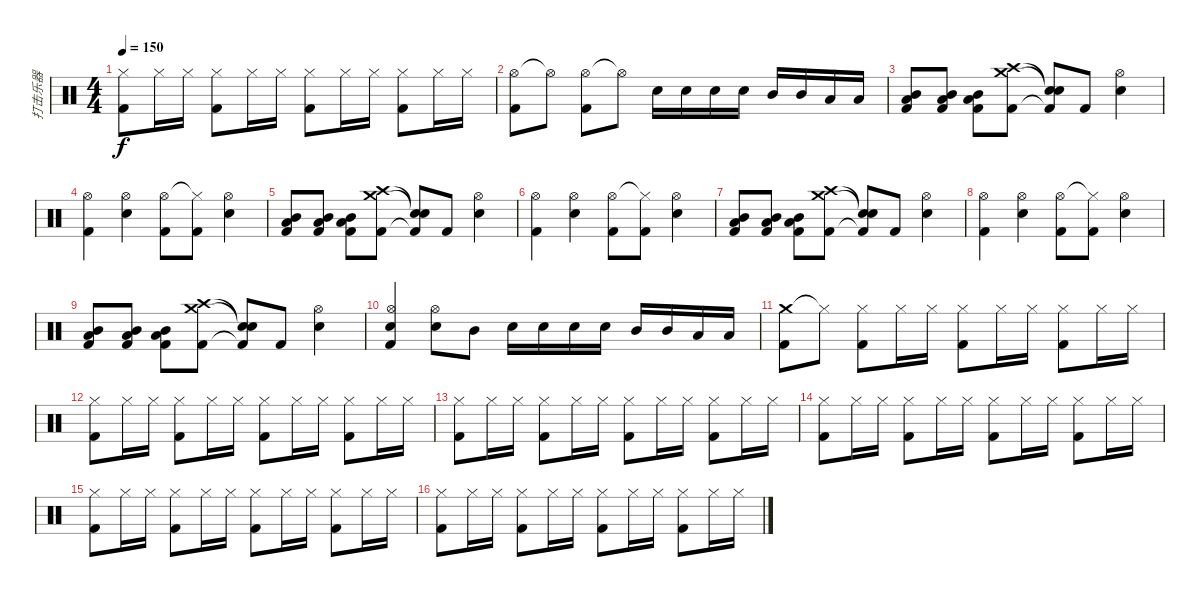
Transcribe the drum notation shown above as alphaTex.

\track ("打击乐器" "打击乐器") {instrument percussion}
\staff {score}
\articulation defaults
\ts (4 4)
\tempo 150
\clef neutral
\ks c
("Hi-Hat (closed)" "Kick (hit) 2").8{dy f} "Hi-Hat (closed)".16 "Hi-Hat (closed)".16 ("Hi-Hat (closed)" "Kick (hit) 2").8 "Hi-Hat (closed)".16 "Hi-Hat (closed)".16 ("Hi-Hat (closed)" "Kick (hit) 2").8 "Hi-Hat (closed)".16 "Hi-Hat (closed)".16 ("Hi-Hat (closed)" "Kick (hit) 2").8 "Hi-Hat (closed)".16 "Hi-Hat (closed)".16 |
("Hi-Hat (open)" "Kick (hit) 2").8 "Hi-Hat (open)"{t}.8 ("Hi-Hat (open)" "Kick (hit) 2").8 "Hi-Hat (open)"{t}.8 "Snare (hit) 2".16 "Snare (hit) 2".16 "Snare (hit) 2".16 "Snare (hit) 2".16 "Mid Tom (hit)".16 "Mid Tom (hit)".16 "Low Tom (hit)".16 "Low Tom (hit)".16 |
("Mid Tom (hit)" "Low Tom (hit)" "Kick (hit) 2").8 ("Mid Tom (hit)" "Low Tom (hit)" "Kick (hit) 2").8 ("Mid Tom (hit)" "Low Tom (hit)" "Kick (hit) 2").8 ("Crash high (hit)" "Crash medium (hit)" "Kick (hit) 2").8 ("Snare (hit)"{t} "Snare (hit)"{t} "Kick (hit) 2"{t}).8 "Kick (hit) 2".8 ("Hi-Hat (open)" "Snare (hit) 2").4 |
("Hi-Hat (open)" "Kick (hit) 2").4 ("Hi-Hat (open)" "Snare (hit) 2").4 ("Hi-Hat (open)" "Kick (hit) 2").8 ("Hi-Hat (closed)"{t} "Kick (hit) 2").8 ("Hi-Hat (open)" "Snare (hit) 2").4 |
("Mid Tom (hit)" "Low Tom (hit)" "Kick (hit) 2").8 ("Mid Tom (hit)" "Low Tom (hit)" "Kick (hit) 2").8 ("Mid Tom (hit)" "Low Tom (hit)" "Kick (hit) 2").8 ("Crash high (hit)" "Crash medium (hit)" "Kick (hit) 2").8 ("Snare (hit)"{t} "Snare (hit)"{t} "Kick (hit) 2"{t}).8 "Kick (hit) 2".8 ("Hi-Hat (open)" "Snare (hit) 2").4 |
("Hi-Hat (open)" "Kick (hit) 2").4 ("Hi-Hat (open)" "Snare (hit) 2").4 ("Hi-Hat (open)" "Kick (hit) 2").8 ("Hi-Hat (closed)"{t} "Kick (hit) 2").8 ("Hi-Hat (open)" "Snare (hit) 2").4 |
("Mid Tom (hit)" "Low Tom (hit)" "Kick (hit) 2").8 ("Mid Tom (hit)" "Low Tom (hit)" "Kick (hit) 2").8 ("Mid Tom (hit)" "Low Tom (hit)" "Kick (hit) 2").8 ("Crash high (hit)" "Crash medium (hit)" "Kick (hit) 2").8 ("Snare (hit)"{t} "Snare (hit)"{t} "Kick (hit) 2"{t}).8 "Kick (hit) 2".8 ("Hi-Hat (open)" "Snare (hit) 2").4 |
("Hi-Hat (open)" "Kick (hit) 2").4 ("Hi-Hat (open)" "Snare (hit) 2").4 ("Hi-Hat (open)" "Kick (hit) 2").8 ("Hi-Hat (closed)"{t} "Kick (hit) 2").8 ("Hi-Hat (open)" "Snare (hit) 2").4 |
("Mid Tom (hit)" "Low Tom (hit)" "Kick (hit) 2").8 ("Mid Tom (hit)" "Low Tom (hit)" "Kick (hit) 2").8 ("Mid Tom (hit)" "Low Tom (hit)" "Kick (hit) 2").8 ("Crash high (hit)" "Crash medium (hit)" "Kick (hit) 2").8 ("Snare (hit)"{t} "Snare (hit)"{t} "Kick (hit) 2"{t}).8 "Kick (hit) 2".8 ("Hi-Hat (open)" "Snare (hit) 2").4 |
("Hi-Hat (open)" "Snare (hit) 2" "Kick (hit) 2").4 ("Hi-Hat (open)" "Snare (hit) 2").8 "Mid Tom (hit)".8 "Snare (hit) 2".16 "Snare (hit) 2".16 "Snare (hit) 2".16 "Snare (hit) 2".16 "Mid Tom (hit)".16 "Mid Tom (hit)".16 "Low Tom (hit)".16 "Low Tom (hit)".16 |
("Crash medium (hit)" "Kick (hit) 2").8 "Hi-Hat (closed)"{t}.8 ("Hi-Hat (closed)" "Kick (hit) 2").8 "Hi-Hat (closed)".16 "Hi-Hat (closed)".16 ("Hi-Hat (closed)" "Kick (hit) 2").8 "Hi-Hat (closed)".16 "Hi-Hat (closed)".16 ("Hi-Hat (closed)" "Kick (hit) 2").8 "Hi-Hat (closed)".16 "Hi-Hat (closed)".16 |
("Hi-Hat (closed)" "Kick (hit) 2").8 "Hi-Hat (closed)".16 "Hi-Hat (closed)".16 ("Hi-Hat (closed)" "Kick (hit) 2").8 "Hi-Hat (closed)".16 "Hi-Hat (closed)".16 ("Hi-Hat (closed)" "Kick (hit) 2").8 "Hi-Hat (closed)".16 "Hi-Hat (closed)".16 ("Hi-Hat (closed)" "Kick (hit) 2").8 "Hi-Hat (closed)".16 "Hi-Hat (closed)".16 |
("Hi-Hat (closed)" "Kick (hit) 2").8 "Hi-Hat (closed)".16 "Hi-Hat (closed)".16 ("Hi-Hat (closed)" "Kick (hit) 2").8 "Hi-Hat (closed)".16 "Hi-Hat (closed)".16 ("Hi-Hat (closed)" "Kick (hit) 2").8 "Hi-Hat (closed)".16 "Hi-Hat (closed)".16 ("Hi-Hat (closed)" "Kick (hit) 2").8 "Hi-Hat (closed)".16 "Hi-Hat (closed)".16 |
("Hi-Hat (closed)" "Kick (hit) 2").8 "Hi-Hat (closed)".16 "Hi-Hat (closed)".16 ("Hi-Hat (closed)" "Kick (hit) 2").8 "Hi-Hat (closed)".16 "Hi-Hat (closed)".16 ("Hi-Hat (closed)" "Kick (hit) 2").8 "Hi-Hat (closed)".16 "Hi-Hat (closed)".16 ("Hi-Hat (closed)" "Kick (hit) 2").8 "Hi-Hat (closed)".16 "Hi-Hat (closed)".16 |
("Hi-Hat (closed)" "Kick (hit) 2").8 "Hi-Hat (closed)".16 "Hi-Hat (closed)".16 ("Hi-Hat (closed)" "Kick (hit) 2").8 "Hi-Hat (closed)".16 "Hi-Hat (closed)".16 ("Hi-Hat (closed)" "Kick (hit) 2").8 "Hi-Hat (closed)".16 "Hi-Hat (closed)".16 ("Hi-Hat (closed)" "Kick (hit) 2").8 "Hi-Hat (closed)".16 "Hi-Hat (closed)".16 |
("Hi-Hat (closed)" "Kick (hit) 2").8 "Hi-Hat (closed)".16 "Hi-Hat (closed)".16 ("Hi-Hat (closed)" "Kick (hit) 2").8 "Hi-Hat (closed)".16 "Hi-Hat (closed)".16 ("Hi-Hat (closed)" "Kick (hit) 2").8 "Hi-Hat (closed)".16 "Hi-Hat (closed)".16 ("Hi-Hat (closed)" "Kick (hit) 2").8 "Hi-Hat (closed)".16 "Hi-Hat (closed)".16
